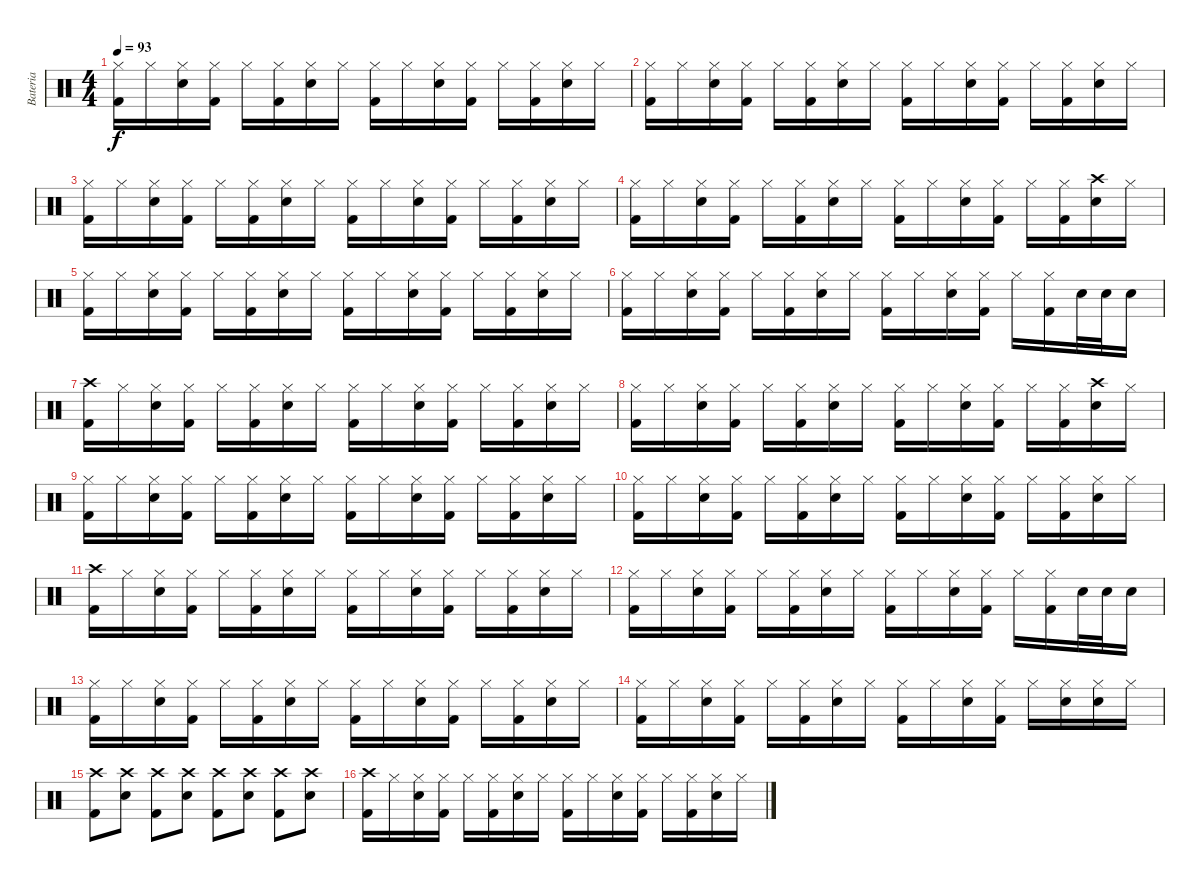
\track ("Bateria" "Bateria") {instrument percussion}
\staff {score}
\articulation defaults
\ts (4 4)
\tempo 93
\clef neutral
\ks c
("Hi-Hat (closed)" "Kick (hit) 2").16{dy f} "Hi-Hat (closed)".16 ("Hi-Hat (closed)" "Snare (hit) 2").16 ("Hi-Hat (closed)" "Kick (hit) 2").16 "Hi-Hat (closed)".16 ("Hi-Hat (closed)" "Kick (hit) 2").16 ("Hi-Hat (closed)" "Snare (hit) 2").16 "Hi-Hat (closed)".16 ("Hi-Hat (closed)" "Kick (hit) 2").16 "Hi-Hat (closed)".16 ("Hi-Hat (closed)" "Snare (hit) 2").16 ("Hi-Hat (closed)" "Kick (hit) 2").16 "Hi-Hat (closed)".16 ("Hi-Hat (closed)" "Kick (hit) 2").16 ("Hi-Hat (closed)" "Snare (hit) 2").16 "Hi-Hat (closed)".16 |
("Hi-Hat (closed)" "Kick (hit) 2").16 "Hi-Hat (closed)".16 ("Hi-Hat (closed)" "Snare (hit) 2").16 ("Hi-Hat (closed)" "Kick (hit) 2").16 "Hi-Hat (closed)".16 ("Hi-Hat (closed)" "Kick (hit) 2").16 ("Hi-Hat (closed)" "Snare (hit) 2").16 "Hi-Hat (closed)".16 ("Hi-Hat (closed)" "Kick (hit) 2").16 "Hi-Hat (closed)".16 ("Hi-Hat (closed)" "Snare (hit) 2").16 ("Hi-Hat (closed)" "Kick (hit) 2").16 "Hi-Hat (closed)".16 ("Hi-Hat (closed)" "Kick (hit) 2").16 ("Hi-Hat (closed)" "Snare (hit) 2").16 "Hi-Hat (closed)".16 |
("Hi-Hat (closed)" "Kick (hit) 2").16 "Hi-Hat (closed)".16 ("Hi-Hat (closed)" "Snare (hit) 2").16 ("Hi-Hat (closed)" "Kick (hit) 2").16 "Hi-Hat (closed)".16 ("Hi-Hat (closed)" "Kick (hit) 2").16 ("Hi-Hat (closed)" "Snare (hit) 2").16 "Hi-Hat (closed)".16 ("Hi-Hat (closed)" "Kick (hit) 2").16 "Hi-Hat (closed)".16 ("Hi-Hat (closed)" "Snare (hit) 2").16 ("Hi-Hat (closed)" "Kick (hit) 2").16 "Hi-Hat (closed)".16 ("Hi-Hat (closed)" "Kick (hit) 2").16 ("Hi-Hat (closed)" "Snare (hit) 2").16 "Hi-Hat (closed)".16 |
("Hi-Hat (closed)" "Kick (hit) 2").16 "Hi-Hat (closed)".16 ("Hi-Hat (closed)" "Snare (hit) 2").16 ("Hi-Hat (closed)" "Kick (hit) 2").16 "Hi-Hat (closed)".16 ("Hi-Hat (closed)" "Kick (hit) 2").16 ("Hi-Hat (closed)" "Snare (hit) 2").16 "Hi-Hat (closed)".16 ("Hi-Hat (closed)" "Kick (hit) 2").16 "Hi-Hat (closed)".16 ("Hi-Hat (closed)" "Snare (hit) 2").16 ("Hi-Hat (closed)" "Kick (hit) 2").16 "Hi-Hat (closed)".16 ("Hi-Hat (closed)" "Kick (hit) 2").16 ("Crash high (hit)" "Snare (hit) 2").16 "Hi-Hat (closed)".16 |
("Hi-Hat (closed)" "Kick (hit) 2").16 "Hi-Hat (closed)".16 ("Hi-Hat (closed)" "Snare (hit) 2").16 ("Hi-Hat (closed)" "Kick (hit) 2").16 "Hi-Hat (closed)".16 ("Hi-Hat (closed)" "Kick (hit) 2").16 ("Hi-Hat (closed)" "Snare (hit) 2").16 "Hi-Hat (closed)".16 ("Hi-Hat (closed)" "Kick (hit) 2").16 "Hi-Hat (closed)".16 ("Hi-Hat (closed)" "Snare (hit) 2").16 ("Hi-Hat (closed)" "Kick (hit) 2").16 "Hi-Hat (closed)".16 ("Hi-Hat (closed)" "Kick (hit) 2").16 ("Hi-Hat (closed)" "Snare (hit) 2").16 "Hi-Hat (closed)".16 |
("Hi-Hat (closed)" "Kick (hit) 2").16 "Hi-Hat (closed)".16 ("Hi-Hat (closed)" "Snare (hit) 2").16 ("Hi-Hat (closed)" "Kick (hit) 2").16 "Hi-Hat (closed)".16 ("Hi-Hat (closed)" "Kick (hit) 2").16 ("Hi-Hat (closed)" "Snare (hit) 2").16 "Hi-Hat (closed)".16 ("Hi-Hat (closed)" "Kick (hit) 2").16 "Hi-Hat (closed)".16 ("Hi-Hat (closed)" "Snare (hit) 2").16 ("Hi-Hat (closed)" "Kick (hit) 2").16 "Hi-Hat (closed)".16 ("Hi-Hat (closed)" "Kick (hit) 2").16 "Snare (hit) 2".32 "Snare (hit) 2".32 "Snare (hit) 2".16 |
("Crash high (hit)" "Kick (hit) 2").16 "Hi-Hat (closed)".16 ("Hi-Hat (closed)" "Snare (hit) 2").16 ("Hi-Hat (closed)" "Kick (hit) 2").16 "Hi-Hat (closed)".16 ("Hi-Hat (closed)" "Kick (hit) 2").16 ("Hi-Hat (closed)" "Snare (hit) 2").16 "Hi-Hat (closed)".16 ("Hi-Hat (closed)" "Kick (hit) 2").16 "Hi-Hat (closed)".16 ("Hi-Hat (closed)" "Snare (hit) 2").16 ("Hi-Hat (closed)" "Kick (hit) 2").16 "Hi-Hat (closed)".16 ("Hi-Hat (closed)" "Kick (hit) 2").16 ("Hi-Hat (closed)" "Snare (hit) 2").16 "Hi-Hat (closed)".16 |
("Hi-Hat (closed)" "Kick (hit) 2").16 "Hi-Hat (closed)".16 ("Hi-Hat (closed)" "Snare (hit) 2").16 ("Hi-Hat (closed)" "Kick (hit) 2").16 "Hi-Hat (closed)".16 ("Hi-Hat (closed)" "Kick (hit) 2").16 ("Hi-Hat (closed)" "Snare (hit) 2").16 "Hi-Hat (closed)".16 ("Hi-Hat (closed)" "Kick (hit) 2").16 "Hi-Hat (closed)".16 ("Hi-Hat (closed)" "Snare (hit) 2").16 ("Hi-Hat (closed)" "Kick (hit) 2").16 "Hi-Hat (closed)".16 ("Hi-Hat (closed)" "Kick (hit) 2").16 ("Crash high (hit)" "Snare (hit) 2").16 "Hi-Hat (closed)".16 |
("Hi-Hat (closed)" "Kick (hit) 2").16 "Hi-Hat (closed)".16 ("Hi-Hat (closed)" "Snare (hit) 2").16 ("Hi-Hat (closed)" "Kick (hit) 2").16 "Hi-Hat (closed)".16 ("Hi-Hat (closed)" "Kick (hit) 2").16 ("Hi-Hat (closed)" "Snare (hit) 2").16 "Hi-Hat (closed)".16 ("Hi-Hat (closed)" "Kick (hit) 2").16 "Hi-Hat (closed)".16 ("Hi-Hat (closed)" "Snare (hit) 2").16 ("Hi-Hat (closed)" "Kick (hit) 2").16 "Hi-Hat (closed)".16 ("Hi-Hat (closed)" "Kick (hit) 2").16 ("Hi-Hat (closed)" "Snare (hit) 2").16 "Hi-Hat (closed)".16 |
("Hi-Hat (closed)" "Kick (hit) 2").16 "Hi-Hat (closed)".16 ("Hi-Hat (closed)" "Snare (hit) 2").16 ("Hi-Hat (closed)" "Kick (hit) 2").16 "Hi-Hat (closed)".16 ("Hi-Hat (closed)" "Kick (hit) 2").16 ("Hi-Hat (closed)" "Snare (hit) 2").16 "Hi-Hat (closed)".16 ("Hi-Hat (closed)" "Kick (hit) 2").16 "Hi-Hat (closed)".16 ("Hi-Hat (closed)" "Snare (hit) 2").16 ("Hi-Hat (closed)" "Kick (hit) 2").16 "Hi-Hat (closed)".16 ("Hi-Hat (closed)" "Kick (hit) 2").16 ("Hi-Hat (closed)" "Snare (hit) 2").16 "Hi-Hat (closed)".16 |
("Crash high (hit)" "Kick (hit) 2").16 "Hi-Hat (closed)".16 ("Hi-Hat (closed)" "Snare (hit) 2").16 ("Hi-Hat (closed)" "Kick (hit) 2").16 "Hi-Hat (closed)".16 ("Hi-Hat (closed)" "Kick (hit) 2").16 ("Hi-Hat (closed)" "Snare (hit) 2").16 "Hi-Hat (closed)".16 ("Hi-Hat (closed)" "Kick (hit) 2").16 "Hi-Hat (closed)".16 ("Hi-Hat (closed)" "Snare (hit) 2").16 ("Hi-Hat (closed)" "Kick (hit) 2").16 "Hi-Hat (closed)".16 ("Hi-Hat (closed)" "Kick (hit) 2").16 ("Hi-Hat (closed)" "Snare (hit) 2").16 "Hi-Hat (closed)".16 |
("Hi-Hat (closed)" "Kick (hit) 2").16 "Hi-Hat (closed)".16 ("Hi-Hat (closed)" "Snare (hit) 2").16 ("Hi-Hat (closed)" "Kick (hit) 2").16 "Hi-Hat (closed)".16 ("Hi-Hat (closed)" "Kick (hit) 2").16 ("Hi-Hat (closed)" "Snare (hit) 2").16 "Hi-Hat (closed)".16 ("Hi-Hat (closed)" "Kick (hit) 2").16 "Hi-Hat (closed)".16 ("Hi-Hat (closed)" "Snare (hit) 2").16 ("Hi-Hat (closed)" "Kick (hit) 2").16 "Hi-Hat (closed)".16 ("Hi-Hat (closed)" "Kick (hit) 2").16 "Snare (hit) 2".32 "Snare (hit) 2".32 "Snare (hit) 2".16 |
("Hi-Hat (closed)" "Kick (hit) 2").16 "Hi-Hat (closed)".16 ("Hi-Hat (closed)" "Snare (hit) 2").16 ("Hi-Hat (closed)" "Kick (hit) 2").16 "Hi-Hat (closed)".16 ("Hi-Hat (closed)" "Kick (hit) 2").16 ("Hi-Hat (closed)" "Snare (hit) 2").16 "Hi-Hat (closed)".16 ("Hi-Hat (closed)" "Kick (hit) 2").16 "Hi-Hat (closed)".16 ("Hi-Hat (closed)" "Snare (hit) 2").16 ("Hi-Hat (closed)" "Kick (hit) 2").16 "Hi-Hat (closed)".16 ("Hi-Hat (closed)" "Kick (hit) 2").16 ("Hi-Hat (closed)" "Snare (hit) 2").16 "Hi-Hat (closed)".16 |
("Hi-Hat (closed)" "Kick (hit) 2").16 "Hi-Hat (closed)".16 ("Hi-Hat (closed)" "Snare (hit) 2").16 ("Hi-Hat (closed)" "Kick (hit) 2").16 "Hi-Hat (closed)".16 ("Hi-Hat (closed)" "Kick (hit) 2").16 ("Hi-Hat (closed)" "Snare (hit) 2").16 "Hi-Hat (closed)".16 ("Hi-Hat (closed)" "Kick (hit) 2").16 "Hi-Hat (closed)".16 ("Hi-Hat (closed)" "Snare (hit) 2").16 ("Hi-Hat (closed)" "Kick (hit) 2").16 "Hi-Hat (closed)".16 ("Hi-Hat (closed)" "Snare (hit) 2").16 ("Hi-Hat (closed)" "Snare (hit) 2").16 "Hi-Hat (closed)".16 |
("Crash high (hit)" "Kick (hit) 2").8 ("Crash high (hit)" "Snare (hit) 2").8 ("Crash high (hit)" "Kick (hit) 2").8 ("Crash high (hit)" "Snare (hit) 2").8 ("Crash high (hit)" "Kick (hit) 2").8 ("Crash high (hit)" "Snare (hit) 2").8 ("Crash high (hit)" "Kick (hit) 2").8 ("Crash high (hit)" "Snare (hit) 2").8 |
("Crash high (hit)" "Kick (hit) 2").16 "Hi-Hat (closed)".16 ("Hi-Hat (closed)" "Snare (hit) 2").16 ("Hi-Hat (closed)" "Kick (hit) 2").16 "Hi-Hat (closed)".16 ("Hi-Hat (closed)" "Kick (hit) 2").16 ("Hi-Hat (closed)" "Snare (hit) 2").16 "Hi-Hat (closed)".16 ("Hi-Hat (closed)" "Kick (hit) 2").16 "Hi-Hat (closed)".16 ("Hi-Hat (closed)" "Snare (hit) 2").16 ("Hi-Hat (closed)" "Kick (hit) 2").16 "Hi-Hat (closed)".16 ("Hi-Hat (closed)" "Kick (hit) 2").16 ("Hi-Hat (closed)" "Snare (hit) 2").16 "Hi-Hat (closed)".16
